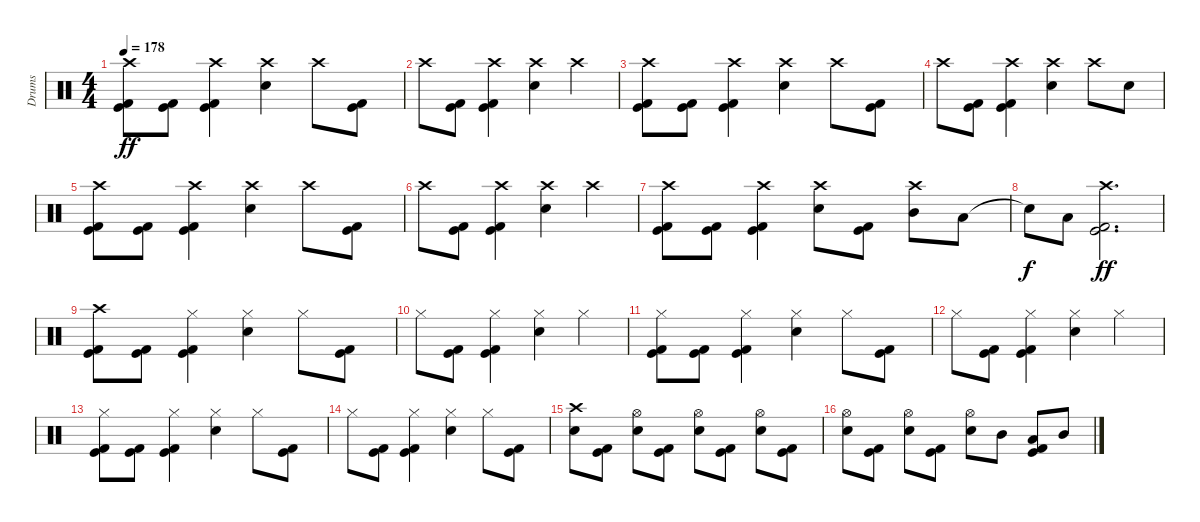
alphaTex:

\track ("Drums" "Drums") {instrument percussion}
\staff {score}
\articulation defaults
\ts (4 4)
\tempo 178
\clef neutral
\ks c
("Kick (hit)" "Kick (hit) 2" "Crash high (hit)").8{dy ff} ("Kick (hit)" "Kick (hit) 2").8 ("Kick (hit)" "Kick (hit) 2" "Crash high (hit)").4 ("Electric Snare (hit)" "Crash high (hit)").4 "Crash high (hit)".8 ("Kick (hit)" "Kick (hit) 2").8 |
"Crash high (hit)".8 ("Kick (hit)" "Kick (hit) 2").8 ("Kick (hit)" "Kick (hit) 2" "Crash high (hit)").4 ("Electric Snare (hit)" "Crash high (hit)").4 "Crash high (hit)".4 |
("Kick (hit)" "Kick (hit) 2" "Crash high (hit)").8 ("Kick (hit)" "Kick (hit) 2").8 ("Kick (hit)" "Kick (hit) 2" "Crash high (hit)").4 ("Electric Snare (hit)" "Crash high (hit)").4 "Crash high (hit)".8 ("Kick (hit)" "Kick (hit) 2").8 |
"Crash high (hit)".8 ("Kick (hit)" "Kick (hit) 2").8 ("Kick (hit)" "Kick (hit) 2" "Crash high (hit)").4 ("Electric Snare (hit)" "Crash high (hit)").4 "Crash high (hit)".8 "Electric Snare (hit)".8 |
("Kick (hit)" "Kick (hit) 2" "Crash high (hit)").8 ("Kick (hit)" "Kick (hit) 2").8 ("Kick (hit)" "Kick (hit) 2" "Crash high (hit)").4 ("Electric Snare (hit)" "Crash high (hit)").4 "Crash high (hit)".8 ("Kick (hit)" "Kick (hit) 2").8 |
"Crash high (hit)".8 ("Kick (hit)" "Kick (hit) 2").8 ("Kick (hit)" "Kick (hit) 2" "Crash high (hit)").4 ("Electric Snare (hit)" "Crash high (hit)").4 "Crash high (hit)".4 |
("Kick (hit)" "Kick (hit) 2" "Crash high (hit)").8 ("Kick (hit)" "Kick (hit) 2").8 ("Kick (hit)" "Kick (hit) 2" "Crash high (hit)").4 ("Electric Snare (hit)" "Crash high (hit)").8 ("Kick (hit)" "Kick (hit) 2").8 ("Mid Tom (hit)" "Crash high (hit)").8 "Low Tom (hit)".8 |
"Snare (hit)"{t}.8{dy f} "Low Tom (hit)".8 ("Kick (hit)" "Kick (hit) 2" "Crash high (hit)").2{d dy ff} |
("Kick (hit)" "Kick (hit) 2" "Crash high (hit)").8 ("Kick (hit)" "Kick (hit) 2").8 ("Kick (hit)" "Kick (hit) 2" "Hi-Hat (closed)").4 ("Electric Snare (hit)" "Hi-Hat (closed)").4 "Hi-Hat (closed)".8 ("Kick (hit)" "Kick (hit) 2").8 |
"Hi-Hat (closed)".8 ("Kick (hit)" "Kick (hit) 2").8 ("Kick (hit)" "Kick (hit) 2" "Hi-Hat (closed)").4 ("Electric Snare (hit)" "Hi-Hat (closed)").4 "Hi-Hat (closed)".4 |
("Kick (hit)" "Kick (hit) 2" "Hi-Hat (closed)").8 ("Kick (hit)" "Kick (hit) 2").8 ("Kick (hit)" "Kick (hit) 2" "Hi-Hat (closed)").4 ("Electric Snare (hit)" "Hi-Hat (closed)").4 "Hi-Hat (closed)".8 ("Kick (hit)" "Kick (hit) 2").8 |
"Hi-Hat (closed)".8 ("Kick (hit)" "Kick (hit) 2").8 ("Kick (hit)" "Kick (hit) 2" "Hi-Hat (closed)").4 ("Electric Snare (hit)" "Hi-Hat (closed)").4 "Hi-Hat (closed)".4 |
("Kick (hit)" "Kick (hit) 2" "Hi-Hat (closed)").8 ("Kick (hit)" "Kick (hit) 2").8 ("Kick (hit)" "Kick (hit) 2" "Hi-Hat (closed)").4 ("Electric Snare (hit)" "Hi-Hat (closed)").4 "Hi-Hat (closed)".8 ("Kick (hit)" "Kick (hit) 2").8 |
"Hi-Hat (closed)".8 ("Kick (hit)" "Kick (hit) 2").8 ("Kick (hit)" "Kick (hit) 2" "Hi-Hat (closed)").4 ("Electric Snare (hit)" "Hi-Hat (closed)").4 "Hi-Hat (closed)".8 ("Kick (hit)" "Kick (hit) 2").8 |
("Electric Snare (hit)" "Crash high (hit)").8 ("Kick (hit)" "Kick (hit) 2").8 ("Electric Snare (hit)" "Hi-Hat (open)").8 ("Kick (hit)" "Kick (hit) 2").8 ("Electric Snare (hit)" "Hi-Hat (open)").8 ("Kick (hit)" "Kick (hit) 2").8 ("Electric Snare (hit)" "Hi-Hat (open)").8 ("Kick (hit)" "Kick (hit) 2").8 |
("Electric Snare (hit)" "Hi-Hat (open)").8 ("Kick (hit)" "Kick (hit) 2").8 ("Electric Snare (hit)" "Hi-Hat (open)").8 ("Kick (hit)" "Kick (hit) 2").8 ("Electric Snare (hit)" "Hi-Hat (open)").8 "Mid Tom (hit)".8 ("Kick (hit)" "Kick (hit) 2" "Low Tom (hit)").8 "Mid Tom (hit)".8
